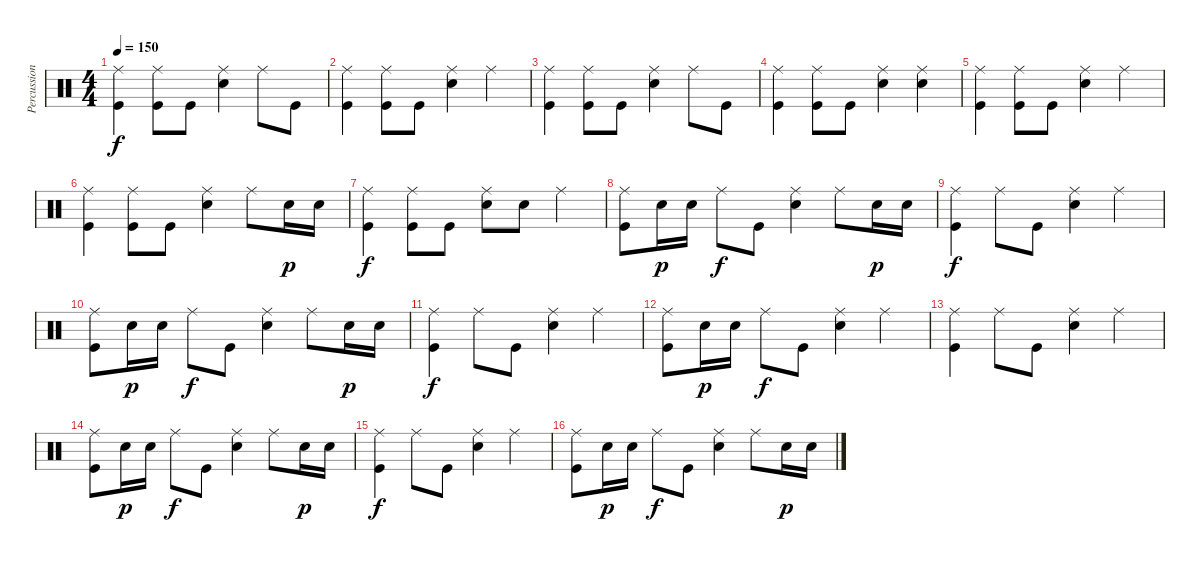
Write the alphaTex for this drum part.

\track ("Percussion" "Percussion") {instrument percussion}
\staff {score}
\articulation defaults
\ts (4 4)
\tempo 150
\clef neutral
\ks c
("Ride (middle)" "Kick (hit)").4{dy f} ("Ride (middle)" "Kick (hit)").8 "Kick (hit)".8 ("Ride (middle)" "Snare (hit) 2").4 "Ride (middle)".8 "Kick (hit)".8 |
("Ride (middle)" "Kick (hit)").4 ("Ride (middle)" "Kick (hit)").8 "Kick (hit)".8 ("Ride (middle)" "Snare (hit) 2").4 "Ride (middle)".4 |
("Ride (middle)" "Kick (hit)").4 ("Ride (middle)" "Kick (hit)").8 "Kick (hit)".8 ("Ride (middle)" "Snare (hit) 2").4 "Ride (middle)".8 "Kick (hit)".8 |
("Ride (middle)" "Kick (hit)").4 ("Ride (middle)" "Kick (hit)").8 "Kick (hit)".8 ("Ride (middle)" "Snare (hit) 2").4 ("Ride (middle)" "Snare (hit) 2").4 |
("Ride (middle)" "Kick (hit)").4 ("Ride (middle)" "Kick (hit)").8 "Kick (hit)".8 ("Ride (middle)" "Snare (hit) 2").4 "Ride (middle)".4 |
("Ride (middle)" "Kick (hit)").4 ("Ride (middle)" "Kick (hit)").8 "Kick (hit)".8 ("Ride (middle)" "Snare (hit) 2").4 "Ride (middle)".8 "Snare (hit) 2".16{dy p} "Snare (hit) 2".16 |
("Ride (middle)" "Kick (hit)").4{dy f} ("Ride (middle)" "Kick (hit)").8 "Kick (hit)".8 ("Ride (middle)" "Snare (hit) 2").8 "Snare (hit) 2".8 "Ride (middle)".4 |
("Ride (middle)" "Kick (hit)").8 "Snare (hit) 2".16{dy p} "Snare (hit) 2".16 "Ride (middle)".8{dy f} "Kick (hit)".8 ("Ride (middle)" "Snare (hit) 2").4 "Ride (middle)".8 "Snare (hit) 2".16{dy p} "Snare (hit) 2".16 |
("Ride (middle)" "Kick (hit)").4{dy f} "Ride (middle)".8 "Kick (hit)".8 ("Ride (middle)" "Snare (hit) 2").4 "Ride (middle)".4 |
("Ride (middle)" "Kick (hit)").8 "Snare (hit) 2".16{dy p} "Snare (hit) 2".16 "Ride (middle)".8{dy f} "Kick (hit)".8 ("Ride (middle)" "Snare (hit) 2").4 "Ride (middle)".8 "Snare (hit) 2".16{dy p} "Snare (hit) 2".16 |
("Ride (middle)" "Kick (hit)").4{dy f} "Ride (middle)".8 "Kick (hit)".8 ("Ride (middle)" "Snare (hit) 2").4 "Ride (middle)".4 |
("Ride (middle)" "Kick (hit)").8 "Snare (hit) 2".16{dy p} "Snare (hit) 2".16 "Ride (middle)".8{dy f} "Kick (hit)".8 ("Ride (middle)" "Snare (hit) 2").4 "Ride (middle)".4 |
("Ride (middle)" "Kick (hit)").4 "Ride (middle)".8 "Kick (hit)".8 ("Ride (middle)" "Snare (hit) 2").4 "Ride (middle)".4 |
("Ride (middle)" "Kick (hit)").8 "Snare (hit) 2".16{dy p} "Snare (hit) 2".16 "Ride (middle)".8{dy f} "Kick (hit)".8 ("Ride (middle)" "Snare (hit) 2").4 "Ride (middle)".8 "Snare (hit) 2".16{dy p} "Snare (hit) 2".16 |
("Ride (middle)" "Kick (hit)").4{dy f} "Ride (middle)".8 "Kick (hit)".8 ("Ride (middle)" "Snare (hit) 2").4 "Ride (middle)".4 |
("Ride (middle)" "Kick (hit)").8 "Snare (hit) 2".16{dy p} "Snare (hit) 2".16 "Ride (middle)".8{dy f} "Kick (hit)".8 ("Ride (middle)" "Snare (hit) 2").4 "Ride (middle)".8 "Snare (hit) 2".16{dy p} "Snare (hit) 2".16
